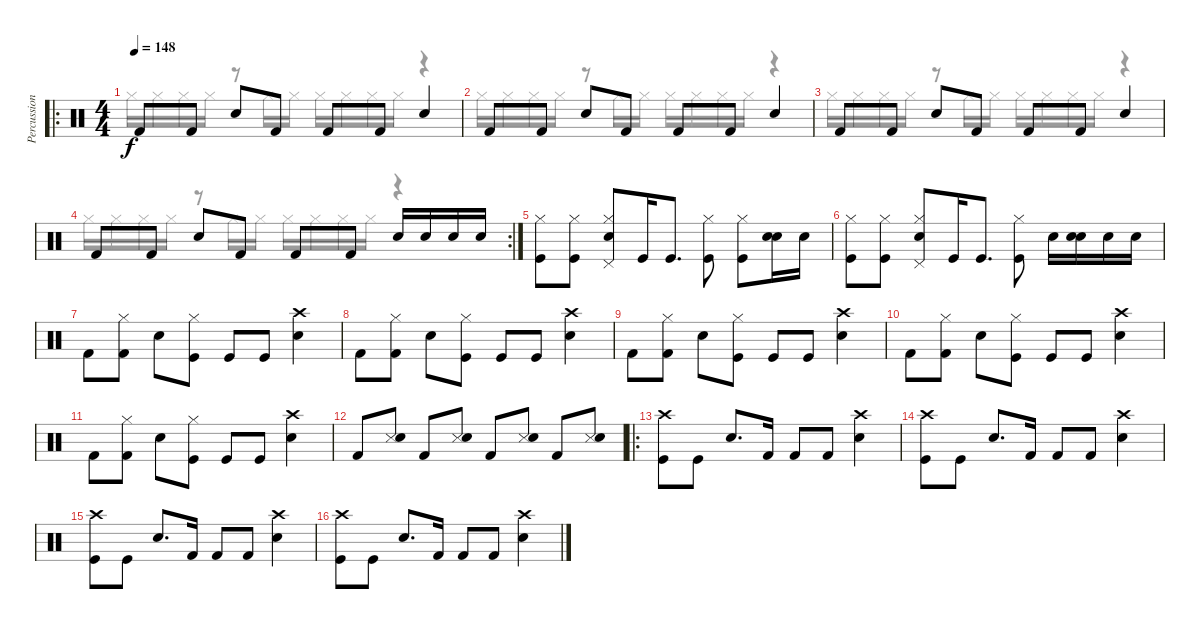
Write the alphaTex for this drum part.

\track ("Percussion" "Percussion") {instrument percussion}
\staff {score}
\articulation defaults
\voice
\ro
\ts (4 4)
\tempo 148
\clef neutral
\ks c "Kick (hit) 2".8{dy f} "Kick (hit) 2".8 "Snare (hit) 2".8 "Kick (hit) 2".8 "Kick (hit) 2".8 "Kick (hit) 2".8 "Electric Snare (hit)".4
|
"Kick (hit) 2".8 "Kick (hit) 2".8 "Snare (hit) 2".8 "Kick (hit) 2".8 "Kick (hit) 2".8 "Kick (hit) 2".8 "Electric Snare (hit)".4 |
"Kick (hit) 2".8 "Kick (hit) 2".8 "Snare (hit) 2".8 "Kick (hit) 2".8 "Kick (hit) 2".8 "Kick (hit) 2".8 "Electric Snare (hit)".4 |
\rc 2 "Kick (hit) 2".8 "Kick (hit) 2".8 "Snare (hit) 2".8 "Kick (hit) 2".8 "Kick (hit) 2".8 "Kick (hit) 2".8 "Electric Snare (hit)".16 "Electric Snare (hit)".16 "Snare (hit) 2".16 "Electric Snare (hit)".16
|
("Hi-Hat (closed)" "Kick (hit)").8 ("Hi-Hat (closed)" "Kick (hit)").8 ("Hi-Hat (closed)" "Pedal Hi-Hat (hit)" "Electric Snare (hit)").8 "Kick (hit)".16 "Kick (hit)".8{d} ("Hi-Hat (closed)" "Kick (hit)").8 ("Hi-Hat (closed)" "Kick (hit)").8 ("Hand Clap (hit)" "Electric Snare (hit)").16 "Snare (hit) 2".16 |
("Hi-Hat (closed)" "Kick (hit)").8 ("Hi-Hat (closed)" "Kick (hit)").8 ("Hi-Hat (closed)" "Pedal Hi-Hat (hit)" "Electric Snare (hit)").8 "Kick (hit)".16 "Kick (hit)".8{d} ("Hi-Hat (closed)" "Kick (hit)").8 "Electric Snare (hit)".16 ("Hand Clap (hit)" "Electric Snare (hit)").16 "Snare (hit) 2".16 "Electric Snare (hit)".16 |
"Kick (hit) 2".8 ("Hi-Hat (closed)" "Kick (hit) 2").8 "Snare (hit) 2".8 ("Hi-Hat (closed)" "Kick (hit)").8 "Kick (hit)".8 "Kick (hit)".8 ("Crash high (hit)" "Snare (hit) 2").4 |
"Kick (hit) 2".8 ("Hi-Hat (closed)" "Kick (hit) 2").8 "Snare (hit) 2".8 ("Hi-Hat (closed)" "Kick (hit)").8 "Kick (hit)".8 "Kick (hit)".8 ("Crash high (hit)" "Snare (hit) 2").4 |
"Kick (hit) 2".8 ("Hi-Hat (closed)" "Kick (hit) 2").8 "Snare (hit) 2".8 ("Hi-Hat (closed)" "Kick (hit)").8 "Kick (hit)".8 "Kick (hit)".8 ("Crash high (hit)" "Snare (hit) 2").4 |
"Kick (hit) 2".8 ("Hi-Hat (closed)" "Kick (hit) 2").8 "Snare (hit) 2".8 ("Hi-Hat (closed)" "Kick (hit)").8 "Kick (hit)".8 "Kick (hit)".8 ("Crash high (hit)" "Snare (hit) 2").4 |
"Kick (hit) 2".8 ("Hi-Hat (closed)" "Kick (hit) 2").8 "Snare (hit) 2".8 ("Hi-Hat (closed)" "Kick (hit)").8 "Kick (hit)".8 "Kick (hit)".8 ("Crash high (hit)" "Snare (hit) 2").4 |
"Kick (hit) 2".8 ("Snare (side stick) 3" "Snare (hit) 2").8 "Kick (hit) 2".8 ("Snare (side stick) 3" "Snare (hit) 2").8 "Kick (hit) 2".8 ("Snare (side stick) 3" "Snare (hit) 2").8 "Kick (hit) 2".8 ("Snare (side stick) 3" "Snare (hit) 2").8 |
\ro
("Crash high (hit)" "Kick (hit)").8 "Kick (hit)".8 "Snare (hit) 2".8{d} "Kick (hit) 2".16 "Kick (hit) 2".8 "Kick (hit) 2".8 ("Crash high (hit)" "Snare (hit) 2").4 |
("Crash high (hit)" "Kick (hit)").8 "Kick (hit)".8 "Snare (hit) 2".8{d} "Kick (hit) 2".16 "Kick (hit) 2".8 "Kick (hit) 2".8 ("Crash high (hit)" "Snare (hit) 2").4 |
("Crash high (hit)" "Kick (hit)").8 "Kick (hit)".8 "Snare (hit) 2".8{d} "Kick (hit) 2".16 "Kick (hit) 2".8 "Kick (hit) 2".8 ("Crash high (hit)" "Snare (hit) 2").4 |
("Crash high (hit)" "Kick (hit)").8 "Kick (hit)".8 "Snare (hit) 2".8{d} "Kick (hit) 2".16 "Kick (hit) 2".8 "Kick (hit) 2".8 ("Crash high (hit)" "Snare (hit) 2").4
\voice
\clef neutral
\ottava regular
\simile none
\ks c "Hi-Hat (closed)".16{dy f} "Hi-Hat (closed)".16 "Hi-Hat (closed)".16 "Hi-Hat (closed)".16
r.8 "Hi-Hat (closed)".16 "Hi-Hat (closed)".16 "Hi-Hat (closed)".16 "Hi-Hat (closed)".16 "Hi-Hat (closed)".16 "Hi-Hat (closed)".16 r.4 |
"Hi-Hat (closed)".16 "Hi-Hat (closed)".16 "Hi-Hat (closed)".16 "Hi-Hat (closed)".16 r.8 "Hi-Hat (closed)".16 "Hi-Hat (closed)".16 "Hi-Hat (closed)".16 "Hi-Hat (closed)".16 "Hi-Hat (closed)".16 "Hi-Hat (closed)".16 r.4 |
"Hi-Hat (closed)".16 "Hi-Hat (closed)".16 "Hi-Hat (closed)".16 "Hi-Hat (closed)".16 r.8 "Hi-Hat (closed)".16 "Hi-Hat (closed)".16 "Hi-Hat (closed)".16 "Hi-Hat (closed)".16 "Hi-Hat (closed)".16 "Hi-Hat (closed)".16 r.4 |
"Hi-Hat (closed)".16 "Hi-Hat (closed)".16 "Hi-Hat (closed)".16 "Hi-Hat (closed)".16 r.8 "Hi-Hat (closed)".16 "Hi-Hat (closed)".16 "Hi-Hat (closed)".16 "Hi-Hat (closed)".16 "Hi-Hat (closed)".16 "Hi-Hat (closed)".16 r.4 |
|
|
|
|
|
|
|
|
|
|
|
